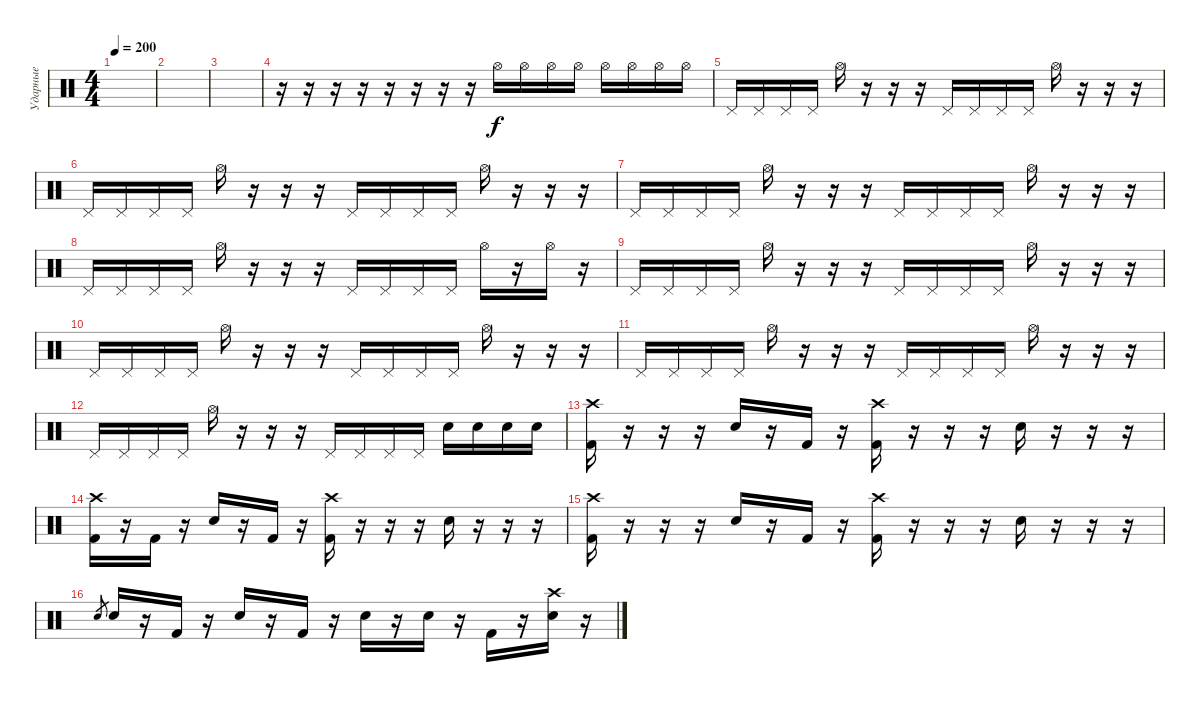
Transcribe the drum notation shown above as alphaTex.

\track ("Ударные" "Ударные") {solo instrument percussion}
\staff {score}
\articulation defaults
\ts (4 4)
\tempo 200
\clef neutral
\ks c
|
|
|
r.16 r.16 r.16 r.16 r.16 r.16 r.16 r.16 "Hi-Hat (open)".16 "Hi-Hat (open)".16 "Hi-Hat (open)".16 "Hi-Hat (open)".16 "Hi-Hat (open)".16 "Hi-Hat (open)".16 "Hi-Hat (open)".16 "Hi-Hat (open)".16 |
"Pedal Hi-Hat (hit)".16 "Pedal Hi-Hat (hit)".16 "Pedal Hi-Hat (hit)".16 "Pedal Hi-Hat (hit)".16 "Hi-Hat (open)".16 r.16 r.16 r.16 "Pedal Hi-Hat (hit)".16 "Pedal Hi-Hat (hit)".16 "Pedal Hi-Hat (hit)".16 "Pedal Hi-Hat (hit)".16 "Hi-Hat (open)".16 r.16 r.16 r.16 |
"Pedal Hi-Hat (hit)".16 "Pedal Hi-Hat (hit)".16 "Pedal Hi-Hat (hit)".16 "Pedal Hi-Hat (hit)".16 "Hi-Hat (open)".16 r.16 r.16 r.16 "Pedal Hi-Hat (hit)".16 "Pedal Hi-Hat (hit)".16 "Pedal Hi-Hat (hit)".16 "Pedal Hi-Hat (hit)".16 "Hi-Hat (open)".16 r.16 r.16 r.16 |
"Pedal Hi-Hat (hit)".16 "Pedal Hi-Hat (hit)".16 "Pedal Hi-Hat (hit)".16 "Pedal Hi-Hat (hit)".16 "Hi-Hat (open)".16 r.16 r.16 r.16 "Pedal Hi-Hat (hit)".16 "Pedal Hi-Hat (hit)".16 "Pedal Hi-Hat (hit)".16 "Pedal Hi-Hat (hit)".16 "Hi-Hat (open)".16 r.16 r.16 r.16 |
"Pedal Hi-Hat (hit)".16 "Pedal Hi-Hat (hit)".16 "Pedal Hi-Hat (hit)".16 "Pedal Hi-Hat (hit)".16 "Hi-Hat (open)".16 r.16 r.16 r.16 "Pedal Hi-Hat (hit)".16 "Pedal Hi-Hat (hit)".16 "Pedal Hi-Hat (hit)".16 "Pedal Hi-Hat (hit)".16 "Hi-Hat (open)".16 r.16 "Hi-Hat (open)".16 r.16 |
"Pedal Hi-Hat (hit)".16 "Pedal Hi-Hat (hit)".16 "Pedal Hi-Hat (hit)".16 "Pedal Hi-Hat (hit)".16 "Hi-Hat (open)".16 r.16 r.16 r.16 "Pedal Hi-Hat (hit)".16 "Pedal Hi-Hat (hit)".16 "Pedal Hi-Hat (hit)".16 "Pedal Hi-Hat (hit)".16 "Hi-Hat (open)".16 r.16 r.16 r.16 |
"Pedal Hi-Hat (hit)".16 "Pedal Hi-Hat (hit)".16 "Pedal Hi-Hat (hit)".16 "Pedal Hi-Hat (hit)".16 "Hi-Hat (open)".16 r.16 r.16 r.16 "Pedal Hi-Hat (hit)".16 "Pedal Hi-Hat (hit)".16 "Pedal Hi-Hat (hit)".16 "Pedal Hi-Hat (hit)".16 "Hi-Hat (open)".16 r.16 r.16 r.16 |
"Pedal Hi-Hat (hit)".16 "Pedal Hi-Hat (hit)".16 "Pedal Hi-Hat (hit)".16 "Pedal Hi-Hat (hit)".16 "Hi-Hat (open)".16 r.16 r.16 r.16 "Pedal Hi-Hat (hit)".16 "Pedal Hi-Hat (hit)".16 "Pedal Hi-Hat (hit)".16 "Pedal Hi-Hat (hit)".16 "Hi-Hat (open)".16 r.16 r.16 r.16 |
"Pedal Hi-Hat (hit)".16 "Pedal Hi-Hat (hit)".16 "Pedal Hi-Hat (hit)".16 "Pedal Hi-Hat (hit)".16 "Hi-Hat (open)".16 r.16 r.16 r.16 "Pedal Hi-Hat (hit)".16 "Pedal Hi-Hat (hit)".16 "Pedal Hi-Hat (hit)".16 "Pedal Hi-Hat (hit)".16 "Electric Snare (hit)".16 "Electric Snare (hit)".16 "Electric Snare (hit)".16 "Electric Snare (hit)".16 |
("Crash high (hit)" "Kick (hit) 2").16 r.16 r.16 r.16 "Electric Snare (hit)".16 r.16 "Kick (hit) 2".16 r.16 ("Crash high (hit)" "Kick (hit) 2").16 r.16 r.16 r.16 "Electric Snare (hit)".16 r.16 r.16 r.16 |
("Crash high (hit)" "Kick (hit) 2").16 r.16 "Kick (hit) 2".16 r.16 "Electric Snare (hit)".16 r.16 "Kick (hit) 2".16 r.16 ("Crash high (hit)" "Kick (hit) 2").16 r.16 r.16 r.16 "Electric Snare (hit)".16 r.16 r.16 r.16 |
("Crash high (hit)" "Kick (hit) 2").16 r.16 r.16 r.16 "Electric Snare (hit)".16 r.16 "Kick (hit) 2".16 r.16 ("Crash high (hit)" "Kick (hit) 2").16 r.16 r.16 r.16 "Electric Snare (hit)".16 r.16 r.16 r.16 |
"Electric Snare (hit)".8{gr} "Electric Snare (hit)".16 r.16 "Kick (hit) 2".16 r.16 "Electric Snare (hit)".16 r.16 "Kick (hit) 2".16 r.16 "Electric Snare (hit)".16 r.16 "Electric Snare (hit)".16 r.16 "Kick (hit) 2".16 r.16 ("Crash high (hit)" "Electric Snare (hit)").16 r.16
